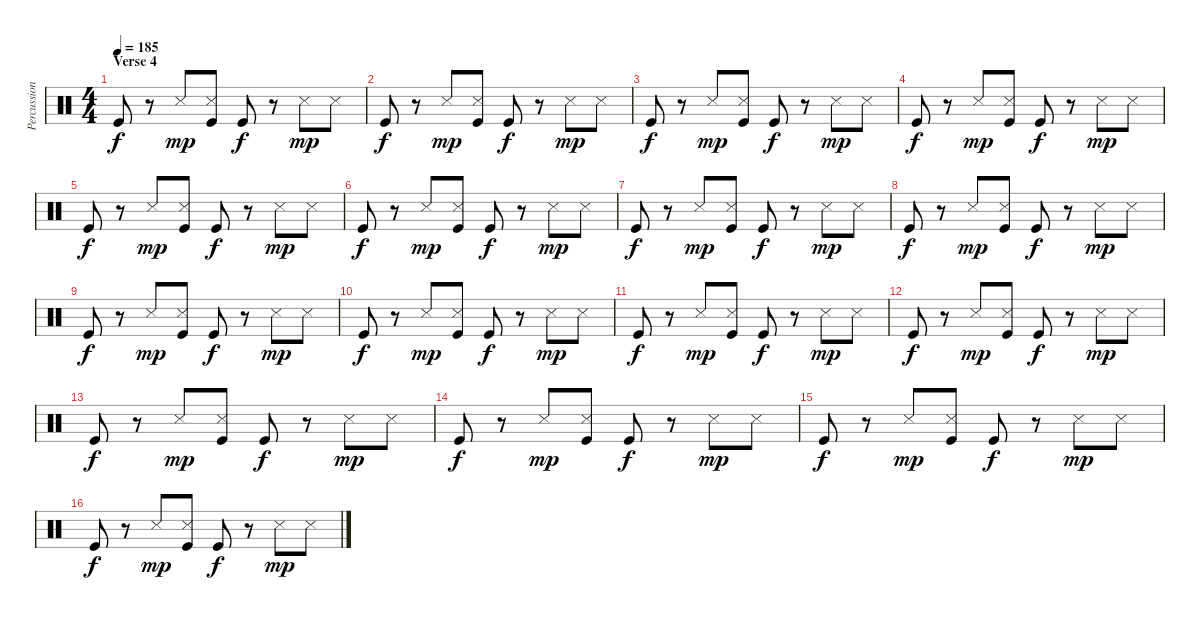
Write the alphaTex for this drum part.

\track ("Percussion" "Percussion") {instrument percussion}
\staff {score}
\articulation defaults
\ts (4 4)
\section ("" "Verse 4")
\tempo 185
\clef neutral
\ks c "Kick (hit)".8{dy f}
r.8 "Metronome (hit)".8{dy mp} ("Metronome (hit)" "Kick (hit)").8 "Kick (hit)".8{dy f} r.8 "Snare (side stick) 3".8{dy mp} "Snare (side stick) 3".8 |
"Kick (hit)".8{dy f} r.8 "Metronome (hit)".8{dy mp} ("Metronome (hit)" "Kick (hit)").8 "Kick (hit)".8{dy f} r.8 "Snare (side stick) 3".8{dy mp} "Snare (side stick) 3".8 |
"Kick (hit)".8{dy f} r.8 "Metronome (hit)".8{dy mp} ("Metronome (hit)" "Kick (hit)").8 "Kick (hit)".8{dy f} r.8 "Snare (side stick) 3".8{dy mp} "Snare (side stick) 3".8 |
"Kick (hit)".8{dy f} r.8 "Metronome (hit)".8{dy mp} ("Metronome (hit)" "Kick (hit)").8 "Kick (hit)".8{dy f} r.8 "Snare (side stick) 3".8{dy mp} "Snare (side stick) 3".8 |
"Kick (hit)".8{dy f} r.8 "Metronome (hit)".8{dy mp} ("Metronome (hit)" "Kick (hit)").8 "Kick (hit)".8{dy f} r.8 "Snare (side stick) 3".8{dy mp} "Snare (side stick) 3".8 |
"Kick (hit)".8{dy f} r.8 "Metronome (hit)".8{dy mp} ("Metronome (hit)" "Kick (hit)").8 "Kick (hit)".8{dy f} r.8 "Snare (side stick) 3".8{dy mp} "Snare (side stick) 3".8 |
"Kick (hit)".8{dy f} r.8 "Metronome (hit)".8{dy mp} ("Metronome (hit)" "Kick (hit)").8 "Kick (hit)".8{dy f} r.8 "Snare (side stick) 3".8{dy mp} "Snare (side stick) 3".8 |
"Kick (hit)".8{dy f} r.8 "Metronome (hit)".8{dy mp} ("Metronome (hit)" "Kick (hit)").8 "Kick (hit)".8{dy f} r.8 "Snare (side stick) 3".8{dy mp} "Snare (side stick) 3".8 |
"Kick (hit)".8{dy f} r.8 "Metronome (hit)".8{dy mp} ("Metronome (hit)" "Kick (hit)").8 "Kick (hit)".8{dy f} r.8 "Snare (side stick) 3".8{dy mp} "Snare (side stick) 3".8 |
"Kick (hit)".8{dy f} r.8 "Metronome (hit)".8{dy mp} ("Metronome (hit)" "Kick (hit)").8 "Kick (hit)".8{dy f} r.8 "Snare (side stick) 3".8{dy mp} "Snare (side stick) 3".8 |
"Kick (hit)".8{dy f} r.8 "Metronome (hit)".8{dy mp} ("Metronome (hit)" "Kick (hit)").8 "Kick (hit)".8{dy f} r.8 "Snare (side stick) 3".8{dy mp} "Snare (side stick) 3".8 |
"Kick (hit)".8{dy f} r.8 "Metronome (hit)".8{dy mp} ("Metronome (hit)" "Kick (hit)").8 "Kick (hit)".8{dy f} r.8 "Snare (side stick) 3".8{dy mp} "Snare (side stick) 3".8 |
"Kick (hit)".8{dy f} r.8 "Metronome (hit)".8{dy mp} ("Metronome (hit)" "Kick (hit)").8 "Kick (hit)".8{dy f} r.8 "Snare (side stick) 3".8{dy mp} "Snare (side stick) 3".8 |
"Kick (hit)".8{dy f} r.8 "Metronome (hit)".8{dy mp} ("Metronome (hit)" "Kick (hit)").8 "Kick (hit)".8{dy f} r.8 "Snare (side stick) 3".8{dy mp} "Snare (side stick) 3".8 |
"Kick (hit)".8{dy f} r.8 "Metronome (hit)".8{dy mp} ("Metronome (hit)" "Kick (hit)").8 "Kick (hit)".8{dy f} r.8 "Snare (side stick) 3".8{dy mp} "Snare (side stick) 3".8 |
"Kick (hit)".8{dy f} r.8 "Metronome (hit)".8{dy mp} ("Metronome (hit)" "Kick (hit)").8 "Kick (hit)".8{dy f} r.8 "Snare (side stick) 3".8{dy mp} "Snare (side stick) 3".8
